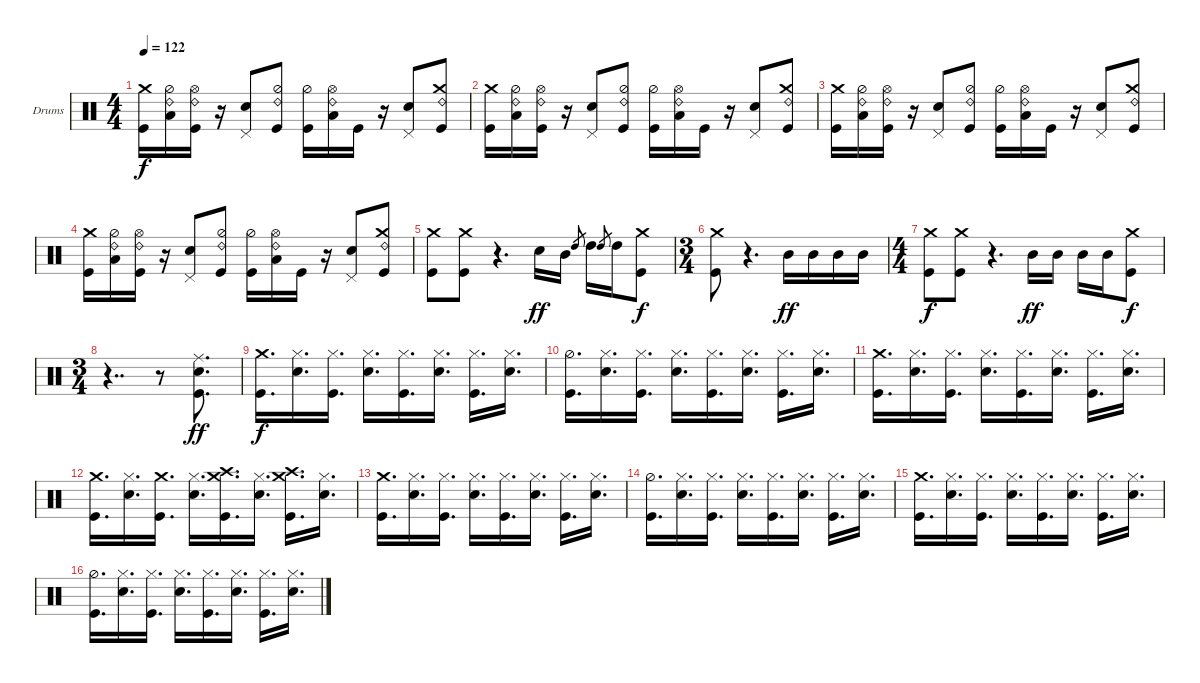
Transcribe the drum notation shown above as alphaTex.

\defaultSystemsLayout 4
\bracketExtendMode groupsimilarinstruments
\firstSystemTrackNameOrientation horizontal
\otherSystemsTrackNameOrientation horizontal
\track ("Drumkit" "Drums") {instrument percussion}
\staff {score}
\articulation defaults
\ts (4 4)
\tempo 122
\clef neutral
\ks c
("Kick (hit)" "Crash medium (hit)").16{dy f} ("Hi-Hat (half)" "Low Tom (hit)" "Ride (bell) 2").16 ("Kick (hit)" "Hi-Hat (open)" "Ride (bell) 2").16 r.16 ("Snare (hit) 2" "Pedal Hi-Hat (hit)").8 ("Kick (hit)" "Hi-Hat (half)" "Ride (bell) 2").8 ("Kick (hit)" "Hi-Hat (half)").16 ("Low Tom (hit)" "Hi-Hat (open)" "Ride (bell) 2").16 "Kick (hit)".16 r.16 ("Snare (hit) 2" "Pedal Hi-Hat (hit)").8 ("Kick (hit)" "Crash medium (hit)" "Ride (bell) 2").8 |
("Kick (hit)" "Crash medium (hit)").16 ("Hi-Hat (half)" "Low Tom (hit)" "Ride (bell) 2").16 ("Kick (hit)" "Hi-Hat (open)" "Ride (bell) 2").16 r.16 ("Snare (hit) 2" "Pedal Hi-Hat (hit)").8 ("Kick (hit)" "Hi-Hat (half)" "Ride (bell) 2").8 ("Kick (hit)" "Hi-Hat (half)").16 ("Low Tom (hit)" "Hi-Hat (open)" "Ride (bell) 2").16 "Kick (hit)".16 r.16 ("Snare (hit) 2" "Pedal Hi-Hat (hit)").8 ("Kick (hit)" "Crash medium (hit)" "Ride (bell) 2").8 |
("Kick (hit)" "Crash medium (hit)").16 ("Hi-Hat (half)" "Low Tom (hit)" "Ride (bell) 2").16 ("Kick (hit)" "Hi-Hat (open)" "Ride (bell) 2").16 r.16 ("Snare (hit) 2" "Pedal Hi-Hat (hit)").8 ("Kick (hit)" "Hi-Hat (half)" "Ride (bell) 2").8 ("Kick (hit)" "Hi-Hat (half)").16 ("Low Tom (hit)" "Hi-Hat (open)" "Ride (bell) 2").16 "Kick (hit)".16 r.16 ("Snare (hit) 2" "Pedal Hi-Hat (hit)").8 ("Kick (hit)" "Crash medium (hit)" "Ride (bell) 2").8 |
("Kick (hit)" "Crash medium (hit)").16 ("Hi-Hat (half)" "Low Tom (hit)" "Ride (bell) 2").16 ("Kick (hit)" "Hi-Hat (open)" "Ride (bell) 2").16 r.16 ("Snare (hit) 2" "Pedal Hi-Hat (hit)").8 ("Kick (hit)" "Hi-Hat (half)" "Ride (bell) 2").8 ("Kick (hit)" "Hi-Hat (half)").16 ("Low Tom (hit)" "Hi-Hat (open)" "Ride (bell) 2").16 "Kick (hit)".16 r.16 ("Snare (hit) 2" "Pedal Hi-Hat (hit)").8 ("Kick (hit)" "Crash medium (hit)" "Ride (bell) 2").8 |
("Crash medium (hit)" "Kick (hit)").8 ("Crash medium (hit)" "Kick (hit)").8 r.4{d} "Snare (hit) 2".16{dy ff} "Mid Tom (hit)".16 "High Tom (hit)".8{gr} "High Tom (hit)".16 "High Tom (hit)".8{gr} "High Tom (hit)".16 ("Kick (hit)" "Crash medium (hit)").8{dy f} |
\ts (3 4)
("Kick (hit)" "Crash medium (hit)").8 r.4{d} "Mid Tom (hit)".16{dy ff} "Mid Tom (hit)".16 "Mid Tom (hit)".16 "Mid Tom (hit)".16 |
\ts (4 4)
("Crash medium (hit)" "Kick (hit)").8{dy f} ("Crash medium (hit)" "Kick (hit)").8 r.4{d} "Mid Tom (hit)".16{dy ff} "Mid Tom (hit)".16 "Mid Tom (hit)".16 "Mid Tom (hit)".16 ("Crash medium (hit)" "Kick (hit)").8{dy f} |
\ts (3 4)
r.4{dd} r.8 ("Kick (hit)" "Ride (middle)" "Snare (hit) 2").8{d dy ff} |
("Kick (hit)" "Crash medium (hit)").16{d dy f} ("Snare (hit) 2" "Hi-Hat (closed)").16{d} ("Kick (hit)" "Hi-Hat (closed)").16{d} ("Snare (hit) 2" "Hi-Hat (closed)").16{d} ("Kick (hit)" "Hi-Hat (closed)").16{d} ("Snare (hit) 2" "Hi-Hat (closed)").16{d} ("Kick (hit)" "Hi-Hat (closed)").16{d} ("Snare (hit) 2" "Hi-Hat (closed)").16{d} |
("Kick (hit)" "Hi-Hat (half)").16{d} ("Snare (hit) 2" "Hi-Hat (closed)").16{d} ("Kick (hit)" "Hi-Hat (closed)").16{d} ("Snare (hit) 2" "Hi-Hat (closed)").16{d} ("Kick (hit)" "Hi-Hat (closed)").16{d} ("Snare (hit) 2" "Hi-Hat (closed)").16{d} ("Kick (hit)" "Hi-Hat (closed)").16{d} ("Snare (hit) 2" "Hi-Hat (closed)").16{d} |
("Kick (hit)" "Crash medium (hit)").16{d} ("Snare (hit) 2" "Hi-Hat (closed)").16{d} ("Kick (hit)" "Hi-Hat (closed)").16{d} ("Snare (hit) 2" "Hi-Hat (closed)").16{d} ("Kick (hit)" "Hi-Hat (closed)").16{d} ("Snare (hit) 2" "Hi-Hat (closed)").16{d} ("Kick (hit)" "Hi-Hat (closed)").16{d} ("Snare (hit) 2" "Hi-Hat (closed)").16{d} |
("Kick (hit)" "Crash medium (hit)").16{d} ("Snare (hit) 2" "Hi-Hat (closed)").16{d} ("Kick (hit)" "Crash medium (hit)").16{d} ("Snare (hit) 2" "Hi-Hat (closed)").16{d} ("Kick (hit)" "Crash medium (hit)" "Crash high (hit)").16{d} ("Snare (hit) 2" "Hi-Hat (closed)").16{d} ("Kick (hit)" "Crash medium (hit)" "Crash high (hit)").16{d} ("Snare (hit) 2" "Hi-Hat (closed)").16{d} |
("Kick (hit)" "Crash medium (hit)").16{d} ("Snare (hit) 2" "Hi-Hat (closed)").16{d} ("Kick (hit)" "Hi-Hat (closed)").16{d} ("Snare (hit) 2" "Hi-Hat (closed)").16{d} ("Kick (hit)" "Hi-Hat (closed)").16{d} ("Snare (hit) 2" "Hi-Hat (closed)").16{d} ("Kick (hit)" "Hi-Hat (closed)").16{d} ("Snare (hit) 2" "Hi-Hat (closed)").16{d} |
("Kick (hit)" "Hi-Hat (half)").16{d} ("Snare (hit) 2" "Hi-Hat (closed)").16{d} ("Kick (hit)" "Hi-Hat (closed)").16{d} ("Snare (hit) 2" "Hi-Hat (closed)").16{d} ("Kick (hit)" "Hi-Hat (closed)").16{d} ("Snare (hit) 2" "Hi-Hat (closed)").16{d} ("Kick (hit)" "Hi-Hat (closed)").16{d} ("Snare (hit) 2" "Hi-Hat (closed)").16{d} |
("Kick (hit)" "Crash medium (hit)").16{d} ("Snare (hit) 2" "Hi-Hat (closed)").16{d} ("Kick (hit)" "Hi-Hat (closed)").16{d} ("Snare (hit) 2" "Hi-Hat (closed)").16{d} ("Kick (hit)" "Hi-Hat (closed)").16{d} ("Snare (hit) 2" "Hi-Hat (closed)").16{d} ("Kick (hit)" "Hi-Hat (closed)").16{d} ("Snare (hit) 2" "Hi-Hat (closed)").16{d} |
("Kick (hit)" "Hi-Hat (half)").16{d} ("Snare (hit) 2" "Hi-Hat (closed)").16{d} ("Kick (hit)" "Hi-Hat (closed)").16{d} ("Snare (hit) 2" "Hi-Hat (closed)").16{d} ("Kick (hit)" "Hi-Hat (closed)").16{d} ("Snare (hit) 2" "Hi-Hat (closed)").16{d} ("Kick (hit)" "Hi-Hat (closed)").16{d} ("Snare (hit) 2" "Hi-Hat (closed)").16{d}
